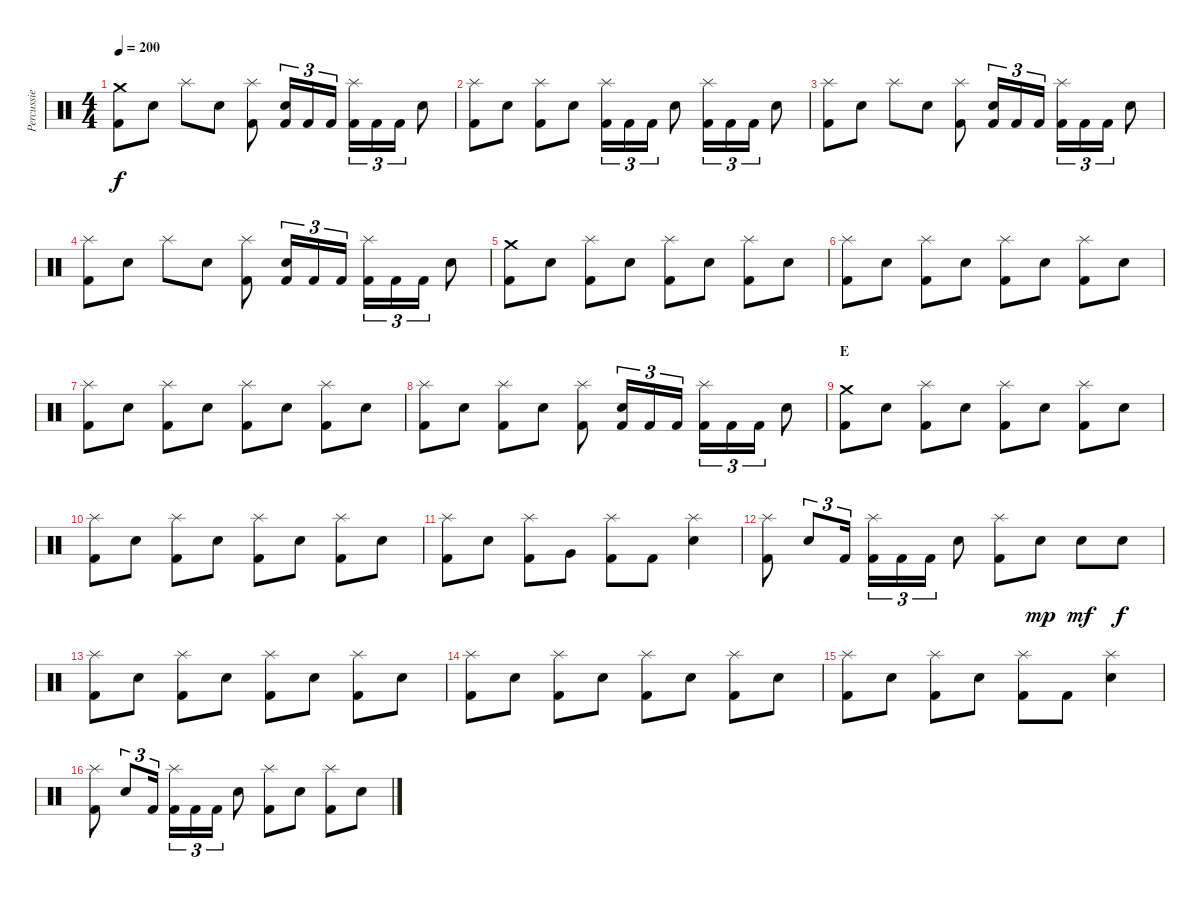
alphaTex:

\track ("Percussie" "Percussie") {instrument percussion}
\staff {score}
\articulation defaults
\ts (4 4)
\tempo 200
\clef neutral
\ks c
("Crash medium (hit)" "Kick (hit) 2").8{dy f} "Electric Snare (hit)".8 "Splash (hit)".8 "Electric Snare (hit)".8 ("Splash (hit)" "Kick (hit) 2").8 ("Electric Snare (hit)" "Kick (hit) 2").16{tu (3 2)} "Kick (hit) 2".16{tu (3 2)} "Kick (hit) 2".16{tu (3 2)} ("Splash (hit)" "Kick (hit) 2").16{tu (3 2)} "Kick (hit) 2".16{tu (3 2)} "Kick (hit) 2".16{tu (3 2)} "Electric Snare (hit)".8 |
("Splash (hit)" "Kick (hit) 2").8 "Electric Snare (hit)".8 ("Splash (hit)" "Kick (hit) 2").8 "Electric Snare (hit)".8 ("Splash (hit)" "Kick (hit) 2").16{tu (3 2)} "Kick (hit) 2".16{tu (3 2)} "Kick (hit) 2".16{tu (3 2)} "Electric Snare (hit)".8 ("Splash (hit)" "Kick (hit) 2").16{tu (3 2)} "Kick (hit) 2".16{tu (3 2)} "Kick (hit) 2".16{tu (3 2)} "Electric Snare (hit)".8 |
("Splash (hit)" "Kick (hit) 2").8 "Electric Snare (hit)".8 "Splash (hit)".8 "Electric Snare (hit)".8 ("Splash (hit)" "Kick (hit) 2").8 ("Electric Snare (hit)" "Kick (hit) 2").16{tu (3 2)} "Kick (hit) 2".16{tu (3 2)} "Kick (hit) 2".16{tu (3 2)} ("Splash (hit)" "Kick (hit) 2").16{tu (3 2)} "Kick (hit) 2".16{tu (3 2)} "Kick (hit) 2".16{tu (3 2)} "Electric Snare (hit)".8 |
("Splash (hit)" "Kick (hit) 2").8 "Electric Snare (hit)".8 "Splash (hit)".8 "Electric Snare (hit)".8 ("Splash (hit)" "Kick (hit) 2").8 ("Electric Snare (hit)" "Kick (hit) 2").16{tu (3 2)} "Kick (hit) 2".16{tu (3 2)} "Kick (hit) 2".16{tu (3 2)} ("Splash (hit)" "Kick (hit) 2").16{tu (3 2)} "Kick (hit) 2".16{tu (3 2)} "Kick (hit) 2".16{tu (3 2)} "Electric Snare (hit)".8 |
("Crash medium (hit)" "Kick (hit) 2").8 "Electric Snare (hit)".8 ("Splash (hit)" "Kick (hit) 2").8 "Electric Snare (hit)".8 ("Splash (hit)" "Kick (hit) 2").8 "Electric Snare (hit)".8 ("Splash (hit)" "Kick (hit) 2").8 "Electric Snare (hit)".8 |
("Splash (hit)" "Kick (hit) 2").8 "Electric Snare (hit)".8 ("Splash (hit)" "Kick (hit) 2").8 "Electric Snare (hit)".8 ("Splash (hit)" "Kick (hit) 2").8 "Electric Snare (hit)".8 ("Splash (hit)" "Kick (hit) 2").8 "Electric Snare (hit)".8 |
("Splash (hit)" "Kick (hit) 2").8 "Electric Snare (hit)".8 ("Splash (hit)" "Kick (hit) 2").8 "Electric Snare (hit)".8 ("Splash (hit)" "Kick (hit) 2").8 "Electric Snare (hit)".8 ("Splash (hit)" "Kick (hit) 2").8 "Electric Snare (hit)".8 |
("Splash (hit)" "Kick (hit) 2").8 "Electric Snare (hit)".8 ("Splash (hit)" "Kick (hit) 2").8 "Electric Snare (hit)".8 ("Splash (hit)" "Kick (hit) 2").8 ("Electric Snare (hit)" "Kick (hit) 2").16{tu (3 2)} "Kick (hit) 2".16{tu (3 2)} "Kick (hit) 2".16{tu (3 2)} ("Splash (hit)" "Kick (hit) 2").16{tu (3 2)} "Kick (hit) 2".16{tu (3 2)} "Kick (hit) 2".16{tu (3 2)} "Electric Snare (hit)".8 |
\section ("" "E")
("Crash medium (hit)" "Kick (hit) 2").8 "Electric Snare (hit)".8 ("Splash (hit)" "Kick (hit) 2").8 "Electric Snare (hit)".8 ("Splash (hit)" "Kick (hit) 2").8 "Electric Snare (hit)".8 ("Splash (hit)" "Kick (hit) 2").8 "Electric Snare (hit)".8 |
("Splash (hit)" "Kick (hit) 2").8 "Electric Snare (hit)".8 ("Splash (hit)" "Kick (hit) 2").8 "Electric Snare (hit)".8 ("Splash (hit)" "Kick (hit) 2").8 "Electric Snare (hit)".8 ("Splash (hit)" "Kick (hit) 2").8 "Electric Snare (hit)".8 |
("Splash (hit)" "Kick (hit) 2").8 "Electric Snare (hit)".8 ("Splash (hit)" "Kick (hit) 2").8 "Very Low Tom (hit)".8 ("Splash (hit)" "Kick (hit) 2").8 "Kick (hit) 2".8 ("Splash (hit)" "Electric Snare (hit)").4 |
("Splash (hit)" "Kick (hit) 2").8 "Electric Snare (hit)".8{tu (3 2)} "Kick (hit) 2".16{tu (3 2)} ("Splash (hit)" "Kick (hit) 2").16{tu (3 2)} "Kick (hit) 2".16{tu (3 2)} "Kick (hit) 2".16{tu (3 2)} "Electric Snare (hit)".8 ("Splash (hit)" "Kick (hit) 2").8 "Electric Snare (hit)".8{dy mp} "Electric Snare (hit)".8{dy mf} "Electric Snare (hit)".8{dy f} |
("Splash (hit)" "Kick (hit) 2").8 "Electric Snare (hit)".8 ("Splash (hit)" "Kick (hit) 2").8 "Electric Snare (hit)".8 ("Splash (hit)" "Kick (hit) 2").8 "Electric Snare (hit)".8 ("Splash (hit)" "Kick (hit) 2").8 "Electric Snare (hit)".8 |
("Splash (hit)" "Kick (hit) 2").8 "Electric Snare (hit)".8 ("Splash (hit)" "Kick (hit) 2").8 "Electric Snare (hit)".8 ("Splash (hit)" "Kick (hit) 2").8 "Electric Snare (hit)".8 ("Splash (hit)" "Kick (hit) 2").8 "Electric Snare (hit)".8 |
("Splash (hit)" "Kick (hit) 2").8 "Electric Snare (hit)".8 ("Splash (hit)" "Kick (hit) 2").8 "Electric Snare (hit)".8 ("Splash (hit)" "Kick (hit) 2").8 "Kick (hit) 2".8 ("Splash (hit)" "Electric Snare (hit)").4 |
("Splash (hit)" "Kick (hit) 2").8 "Electric Snare (hit)".8{tu (3 2)} "Kick (hit) 2".16{tu (3 2)} ("Splash (hit)" "Kick (hit) 2").16{tu (3 2)} "Kick (hit) 2".16{tu (3 2)} "Kick (hit) 2".16{tu (3 2)} "Electric Snare (hit)".8 ("Splash (hit)" "Kick (hit) 2").8 "Electric Snare (hit)".8 ("Splash (hit)" "Kick (hit) 2").8 "Electric Snare (hit)".8
